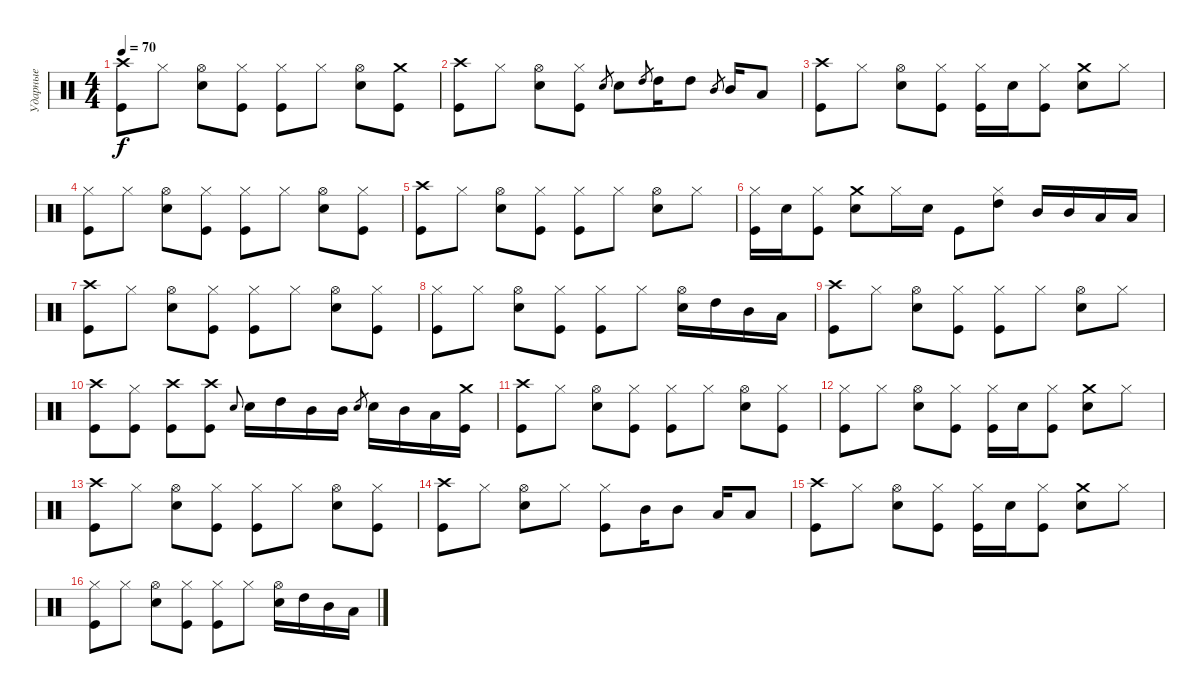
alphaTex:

\track ("Ударные" "Ударные") {instrument percussion}
\staff {score}
\articulation defaults
\ts (4 4)
\tempo 70
\clef neutral
\ks c
("Kick (hit)" "Crash high (hit)").8{dy f} "Hi-Hat (closed)".8 ("Hi-Hat (open)" "Snare (hit) 2").8 ("Hi-Hat (closed)" "Kick (hit)").8 ("Hi-Hat (closed)" "Kick (hit)").8 "Hi-Hat (closed)".8 ("Hi-Hat (open)" "Snare (hit) 2").8 ("Crash medium (hit)" "Kick (hit)").8 |
("Kick (hit)" "Crash high (hit)").8 "Hi-Hat (closed)".8 ("Hi-Hat (open)" "Snare (hit) 2").8 ("Hi-Hat (closed)" "Kick (hit)").8 "Snare (hit) 2".8{gr} "Snare (hit) 2".8 "High Tom (hit)".8{gr} "High Tom (hit)".16 "High Tom (hit)".8 "Mid Tom (hit)".8{gr} "Mid Tom (hit)".16 "Low Tom (hit)".8 |
("Kick (hit)" "Crash high (hit)").8 "Hi-Hat (closed)".8 ("Hi-Hat (open)" "Snare (hit) 2").8 ("Hi-Hat (closed)" "Kick (hit)").8 ("Hi-Hat (closed)" "Kick (hit)").16 "Snare (hit) 2".16 ("Hi-Hat (closed)" "Kick (hit)").8 ("Crash medium (hit)" "Snare (hit) 2").8 "Hi-Hat (closed)".8 |
("Kick (hit)" "Hi-Hat (closed)").8 "Hi-Hat (closed)".8 ("Hi-Hat (open)" "Snare (hit) 2").8 ("Hi-Hat (closed)" "Kick (hit)").8 ("Hi-Hat (closed)" "Kick (hit)").8 "Hi-Hat (closed)".8 ("Hi-Hat (open)" "Snare (hit) 2").8 ("Hi-Hat (closed)" "Kick (hit)").8 |
("Kick (hit)" "Crash high (hit)").8 "Hi-Hat (closed)".8 ("Hi-Hat (open)" "Snare (hit) 2").8 ("Hi-Hat (closed)" "Kick (hit)").8 ("Hi-Hat (closed)" "Kick (hit)").8 "Hi-Hat (closed)".8 ("Hi-Hat (open)" "Snare (hit) 2").8 "Hi-Hat (closed)".8 |
("Hi-Hat (closed)" "Kick (hit)").16 "Snare (hit) 2".16 ("Hi-Hat (closed)" "Kick (hit)").8 ("Crash medium (hit)" "Snare (hit) 2").8 "Hi-Hat (closed)".16 "Snare (hit) 2".16 "Kick (hit)".8 ("Hi-Hat (closed)" "High Tom (hit)").8 "Mid Tom (hit)".16 "Mid Tom (hit)".16 "Low Tom (hit)".16 "Low Tom (hit)".16 |
("Kick (hit)" "Crash high (hit)").8 "Hi-Hat (closed)".8 ("Hi-Hat (open)" "Snare (hit) 2").8 ("Hi-Hat (closed)" "Kick (hit)").8 ("Hi-Hat (closed)" "Kick (hit)").8 "Hi-Hat (closed)".8 ("Hi-Hat (open)" "Snare (hit) 2").8 ("Hi-Hat (closed)" "Kick (hit)").8 |
("Kick (hit)" "Hi-Hat (closed)").8 "Hi-Hat (closed)".8 ("Hi-Hat (open)" "Snare (hit) 2").8 ("Hi-Hat (closed)" "Kick (hit)").8 ("Hi-Hat (closed)" "Kick (hit)").8 "Hi-Hat (closed)".8 ("Hi-Hat (open)" "Snare (hit) 2").16 "High Tom (hit)".16 "Mid Tom (hit)".16 "Low Tom (hit)".16 |
("Kick (hit)" "Crash high (hit)").8 "Hi-Hat (closed)".8 ("Hi-Hat (open)" "Snare (hit) 2").8 ("Hi-Hat (closed)" "Kick (hit)").8 ("Hi-Hat (closed)" "Kick (hit)").8 "Hi-Hat (closed)".8 ("Hi-Hat (open)" "Snare (hit) 2").8 "Hi-Hat (closed)".8 |
("Crash high (hit)" "Kick (hit)").8 ("Hi-Hat (closed)" "Kick (hit)").8 ("Crash high (hit)" "Kick (hit)").8 ("Crash high (hit)" "Kick (hit)").8 "Snare (hit) 2".8{gr onbeat} "Snare (hit) 2".16 "High Tom (hit)".16 "Mid Tom (hit)".16 "Mid Tom (hit)".16 "Snare (hit) 2".8{gr} "Snare (hit) 2".16 "Mid Tom (hit)".16 "Low Tom (hit)".16 ("Crash medium (hit)" "Kick (hit)").16 |
("Crash high (hit)" "Kick (hit)").8 "Hi-Hat (closed)".8 ("Hi-Hat (open)" "Snare (hit) 2").8 ("Hi-Hat (closed)" "Kick (hit)").8 ("Hi-Hat (closed)" "Kick (hit)").8 "Hi-Hat (closed)".8 ("Hi-Hat (open)" "Snare (hit) 2").8 ("Hi-Hat (closed)" "Kick (hit)").8 |
("Kick (hit)" "Hi-Hat (closed)").8 "Hi-Hat (closed)".8 ("Hi-Hat (open)" "Snare (hit) 2").8 ("Hi-Hat (closed)" "Kick (hit)").8 ("Hi-Hat (closed)" "Kick (hit)").16 "Snare (hit) 2".16 ("Hi-Hat (closed)" "Kick (hit)").8 ("Crash medium (hit)" "Snare (hit) 2").8 "Hi-Hat (closed)".8 |
("Crash high (hit)" "Kick (hit)").8 "Hi-Hat (closed)".8 ("Hi-Hat (open)" "Snare (hit) 2").8 ("Hi-Hat (closed)" "Kick (hit)").8 ("Hi-Hat (closed)" "Kick (hit)").8 "Hi-Hat (closed)".8 ("Hi-Hat (open)" "Snare (hit) 2").8 ("Hi-Hat (closed)" "Kick (hit)").8 |
("Crash high (hit)" "Kick (hit)").8 "Hi-Hat (closed)".8 ("Hi-Hat (open)" "Snare (hit) 2").8 "Hi-Hat (closed)".8 ("Hi-Hat (closed)" "Kick (hit)").8 "Mid Tom (hit)".16 "Mid Tom (hit)".8 "Low Tom (hit)".16 "Low Tom (hit)".8 |
("Crash high (hit)" "Kick (hit)").8 "Hi-Hat (closed)".8 ("Hi-Hat (open)" "Snare (hit) 2").8 ("Hi-Hat (closed)" "Kick (hit)").8 ("Hi-Hat (closed)" "Kick (hit)").16 "Snare (hit) 2".16 ("Hi-Hat (closed)" "Kick (hit)").8 ("Crash medium (hit)" "Snare (hit) 2").8 "Hi-Hat (closed)".8 |
("Kick (hit)" "Hi-Hat (closed)").8 "Hi-Hat (closed)".8 ("Hi-Hat (open)" "Snare (hit) 2").8 ("Hi-Hat (closed)" "Kick (hit)").8 ("Hi-Hat (closed)" "Kick (hit)").8 "Hi-Hat (closed)".8 ("Hi-Hat (open)" "Snare (hit) 2").16 "High Tom (hit)".16 "Mid Tom (hit)".16 "Low Tom (hit)".16
